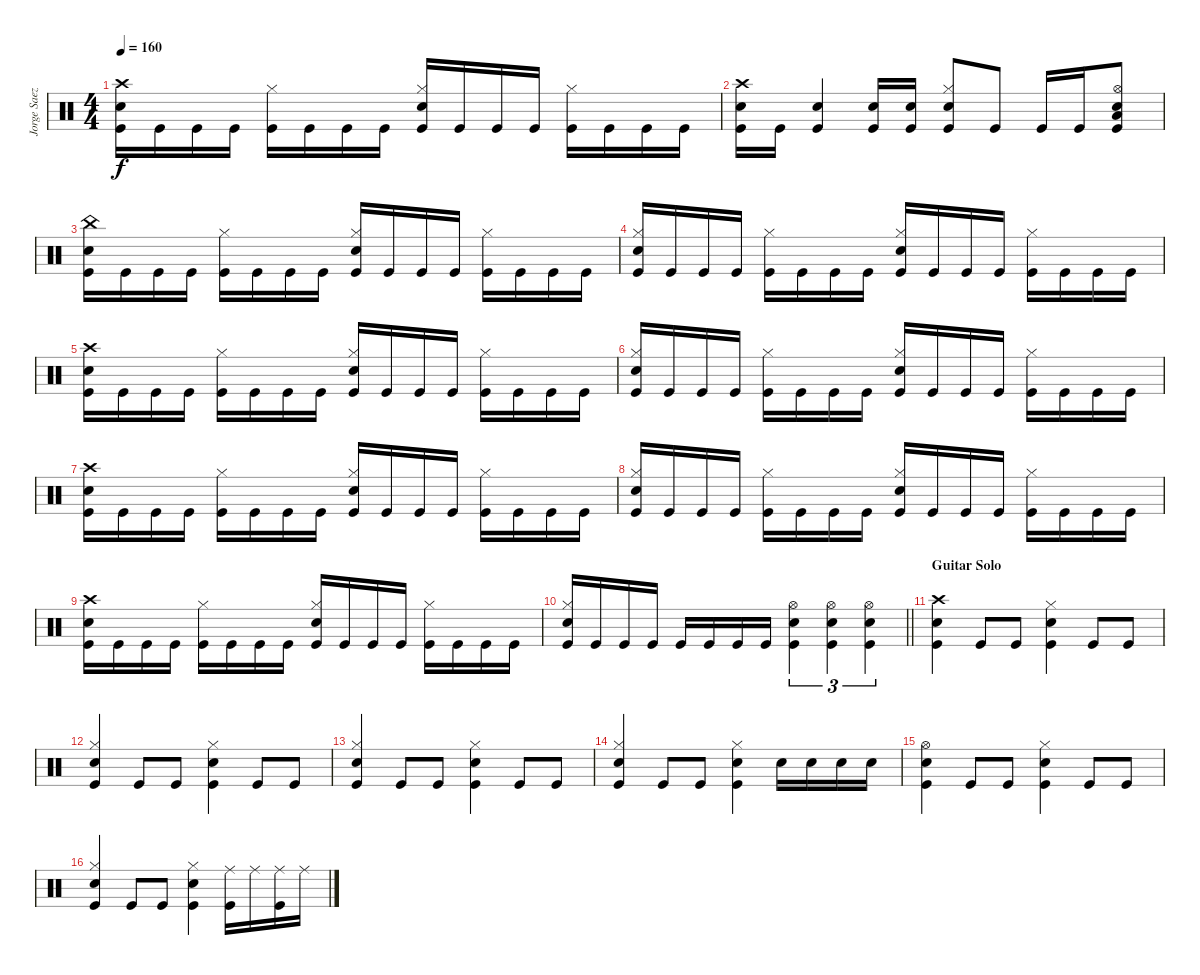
\track ("Jorge Saez" "Jorge Saez") {instrument percussion}
\staff {score}
\articulation defaults
\ts (4 4)
\tempo 160
\clef neutral
\ks c
("Crash high (hit)" "Electric Snare (hit)" "Kick (hit)").16{dy f} "Kick (hit)".16 "Kick (hit)".16 "Kick (hit)".16 ("Hi-Hat (closed)" "Kick (hit)").16 "Kick (hit)".16 "Kick (hit)".16 "Kick (hit)".16 ("Hi-Hat (closed)" "Snare (hit) 2" "Kick (hit)").16 "Kick (hit)".16 "Kick (hit)".16 "Kick (hit)".16 ("Hi-Hat (closed)" "Kick (hit)").16 "Kick (hit)".16 "Kick (hit)".16 "Kick (hit)".16 |
("Crash high (hit)" "Snare (hit) 2" "Kick (hit)").16 "Kick (hit)".16 ("Snare (hit) 2" "Kick (hit)").4 ("Snare (hit) 2" "Kick (hit)").16 ("Snare (hit) 2" "Kick (hit)").16 ("Hi-Hat (closed)" "Snare (hit) 2" "Kick (hit)").8 "Kick (hit)".8 "Kick (hit)".16 "Kick (hit)".16 ("Hi-Hat (open)" "Low Floor Tom (hit)" "Snare (hit) 2" "Kick (hit)").8 |
("China (hit)" "Electric Snare (hit)" "Kick (hit)").16 "Kick (hit)".16 "Kick (hit)".16 "Kick (hit)".16 ("Hi-Hat (closed)" "Kick (hit)").16 "Kick (hit)".16 "Kick (hit)".16 "Kick (hit)".16 ("Hi-Hat (closed)" "Snare (hit) 2" "Kick (hit)").16 "Kick (hit)".16 "Kick (hit)".16 "Kick (hit)".16 ("Hi-Hat (closed)" "Kick (hit)").16 "Kick (hit)".16 "Kick (hit)".16 "Kick (hit)".16 |
("Hi-Hat (closed)" "Snare (hit) 2" "Kick (hit)").16 "Kick (hit)".16 "Kick (hit)".16 "Kick (hit)".16 ("Hi-Hat (closed)" "Kick (hit)").16 "Kick (hit)".16 "Kick (hit)".16 "Kick (hit)".16 ("Hi-Hat (closed)" "Snare (hit) 2" "Kick (hit)").16 "Kick (hit)".16 "Kick (hit)".16 "Kick (hit)".16 ("Hi-Hat (closed)" "Kick (hit)").16 "Kick (hit)".16 "Kick (hit)".16 "Kick (hit)".16 |
("Crash high (hit)" "Electric Snare (hit)" "Kick (hit)").16 "Kick (hit)".16 "Kick (hit)".16 "Kick (hit)".16 ("Hi-Hat (closed)" "Kick (hit)").16 "Kick (hit)".16 "Kick (hit)".16 "Kick (hit)".16 ("Hi-Hat (closed)" "Snare (hit) 2" "Kick (hit)").16 "Kick (hit)".16 "Kick (hit)".16 "Kick (hit)".16 ("Hi-Hat (closed)" "Kick (hit)").16 "Kick (hit)".16 "Kick (hit)".16 "Kick (hit)".16 |
("Hi-Hat (closed)" "Snare (hit) 2" "Kick (hit)").16 "Kick (hit)".16 "Kick (hit)".16 "Kick (hit)".16 ("Hi-Hat (closed)" "Kick (hit)").16 "Kick (hit)".16 "Kick (hit)".16 "Kick (hit)".16 ("Hi-Hat (closed)" "Snare (hit) 2" "Kick (hit)").16 "Kick (hit)".16 "Kick (hit)".16 "Kick (hit)".16 ("Hi-Hat (closed)" "Kick (hit)").16 "Kick (hit)".16 "Kick (hit)".16 "Kick (hit)".16 |
("Crash high (hit)" "Electric Snare (hit)" "Kick (hit)").16 "Kick (hit)".16 "Kick (hit)".16 "Kick (hit)".16 ("Hi-Hat (closed)" "Kick (hit)").16 "Kick (hit)".16 "Kick (hit)".16 "Kick (hit)".16 ("Hi-Hat (closed)" "Snare (hit) 2" "Kick (hit)").16 "Kick (hit)".16 "Kick (hit)".16 "Kick (hit)".16 ("Hi-Hat (closed)" "Kick (hit)").16 "Kick (hit)".16 "Kick (hit)".16 "Kick (hit)".16 |
("Hi-Hat (closed)" "Snare (hit) 2" "Kick (hit)").16 "Kick (hit)".16 "Kick (hit)".16 "Kick (hit)".16 ("Hi-Hat (closed)" "Kick (hit)").16 "Kick (hit)".16 "Kick (hit)".16 "Kick (hit)".16 ("Hi-Hat (closed)" "Snare (hit) 2" "Kick (hit)").16 "Kick (hit)".16 "Kick (hit)".16 "Kick (hit)".16 ("Hi-Hat (closed)" "Kick (hit)").16 "Kick (hit)".16 "Kick (hit)".16 "Kick (hit)".16 |
("Crash high (hit)" "Electric Snare (hit)" "Kick (hit)").16 "Kick (hit)".16 "Kick (hit)".16 "Kick (hit)".16 ("Hi-Hat (closed)" "Kick (hit)").16 "Kick (hit)".16 "Kick (hit)".16 "Kick (hit)".16 ("Hi-Hat (closed)" "Snare (hit) 2" "Kick (hit)").16 "Kick (hit)".16 "Kick (hit)".16 "Kick (hit)".16 ("Hi-Hat (closed)" "Kick (hit)").16 "Kick (hit)".16 "Kick (hit)".16 "Kick (hit)".16 |
\barLineRight lightlight
("Hi-Hat (closed)" "Snare (hit) 2" "Kick (hit)").16 "Kick (hit)".16 "Kick (hit)".16 "Kick (hit)".16 "Kick (hit)".16 "Kick (hit)".16 "Kick (hit)".16 "Kick (hit)".16 ("Hi-Hat (open)" "Electric Snare (hit)" "Kick (hit)").4{tu (3 2)} ("Hi-Hat (open)" "Electric Snare (hit)" "Kick (hit)").4{tu (3 2)} ("Hi-Hat (open)" "Electric Snare (hit)" "Kick (hit)").4{tu (3 2)} |
\section ("" "Guitar Solo")
("Crash high (hit)" "Snare (hit) 2" "Kick (hit)").4 "Kick (hit)".8 "Kick (hit)".8 ("Hi-Hat (closed)" "Electric Snare (hit)" "Kick (hit)").4 "Kick (hit)".8 "Kick (hit)".8 |
("Hi-Hat (closed)" "Snare (hit) 2" "Kick (hit)").4 "Kick (hit)".8 "Kick (hit)".8 ("Hi-Hat (closed)" "Electric Snare (hit)" "Kick (hit)").4 "Kick (hit)".8 "Kick (hit)".8 |
("Hi-Hat (closed)" "Snare (hit) 2" "Kick (hit)").4 "Kick (hit)".8 "Kick (hit)".8 ("Hi-Hat (closed)" "Electric Snare (hit)" "Kick (hit)").4 "Kick (hit)".8 "Kick (hit)".8 |
("Hi-Hat (closed)" "Snare (hit) 2" "Kick (hit)").4 "Kick (hit)".8 "Kick (hit)".8 ("Hi-Hat (closed)" "Electric Snare (hit)" "Kick (hit)").4 "Snare (hit) 2".16 "Snare (hit) 2".16 "Snare (hit) 2".16 "Snare (hit) 2".16 |
("Hi-Hat (open)" "Snare (hit) 2" "Kick (hit)").4 "Kick (hit)".8 "Kick (hit)".8 ("Hi-Hat (closed)" "Electric Snare (hit)" "Kick (hit)").4 "Kick (hit)".8 "Kick (hit)".8 |
("Hi-Hat (closed)" "Snare (hit) 2" "Kick (hit)").4 "Kick (hit)".8 "Kick (hit)".8 ("Hi-Hat (closed)" "Electric Snare (hit)" "Kick (hit)").4 ("Ride (middle)" "Kick (hit)").16 "Ride (middle)".16 ("Ride (middle)" "Kick (hit)").16 "Ride (middle)".16
